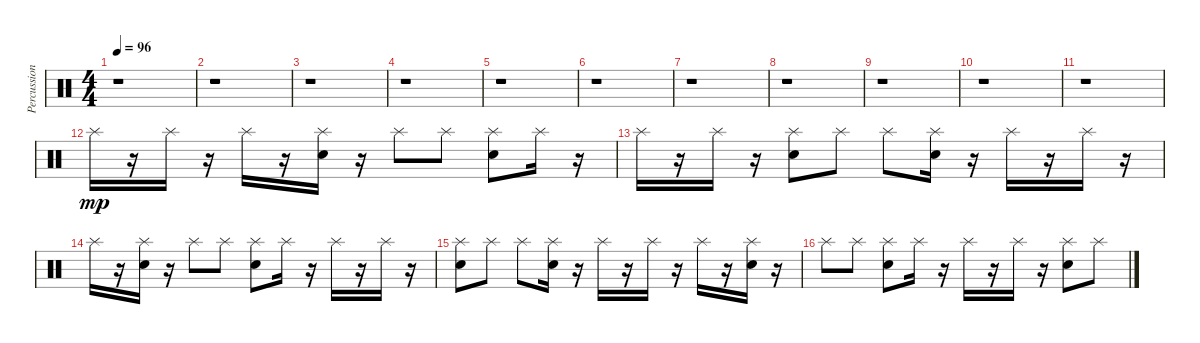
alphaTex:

\track ("Percussions" "Percussion") {instrument percussion}
\staff {score}
\articulation defaults
\ts (4 4)
\tempo 96
\clef neutral
\ks c
r.1{dy f} |
r.1 |
r.1 |
r.1 |
r.1 |
r.1 |
r.1 |
r.1 |
r.1 |
r.1 |
r.1 |
"Splash (hit)".16{dy mp} r.16 "Splash (hit)".16 r.16 "Splash (hit)".16 r.16 ("Splash (hit)" "Electric Snare (hit)").16 r.16 "Splash (hit)".8 "Splash (hit)".8 ("Splash (hit)" "Electric Snare (hit)").8 "Splash (hit)".16 r.16 |
"Splash (hit)".16 r.16 "Splash (hit)".16 r.16 ("Splash (hit)" "Electric Snare (hit)").8 "Splash (hit)".8 "Splash (hit)".8 ("Splash (hit)" "Electric Snare (hit)").16 r.16 "Splash (hit)".16 r.16 "Splash (hit)".16 r.16 |
"Splash (hit)".16 r.16 ("Splash (hit)" "Electric Snare (hit)").16 r.16 "Splash (hit)".8 "Splash (hit)".8 ("Splash (hit)" "Electric Snare (hit)").8 "Splash (hit)".16 r.16 "Splash (hit)".16 r.16 "Splash (hit)".16 r.16 |
("Splash (hit)" "Electric Snare (hit)").8 "Splash (hit)".8 "Splash (hit)".8 ("Splash (hit)" "Electric Snare (hit)").16 r.16 "Splash (hit)".16 r.16 "Splash (hit)".16 r.16 "Splash (hit)".16 r.16 ("Splash (hit)" "Electric Snare (hit)").16 r.16 |
"Splash (hit)".8 "Splash (hit)".8 ("Splash (hit)" "Electric Snare (hit)").8 "Splash (hit)".16 r.16 "Splash (hit)".16 r.16 "Splash (hit)".16 r.16 ("Splash (hit)" "Electric Snare (hit)").8 "Splash (hit)".8
